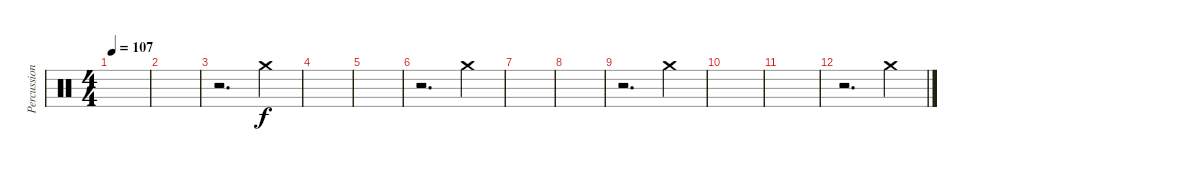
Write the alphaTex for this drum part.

\track ("Percussions" "Percussion") {instrument percussion}
\staff {score}
\articulation defaults
\ts (4 4)
\tempo 107
\clef neutral
\ks c
|
|
r.2{d} "Crash medium (hit)".4 |
|
|
r.2{d} "Crash medium (hit)".4 |
|
|
r.2{d} "Crash medium (hit)".4 |
|
|
r.2{d} "Crash medium (hit)".4
